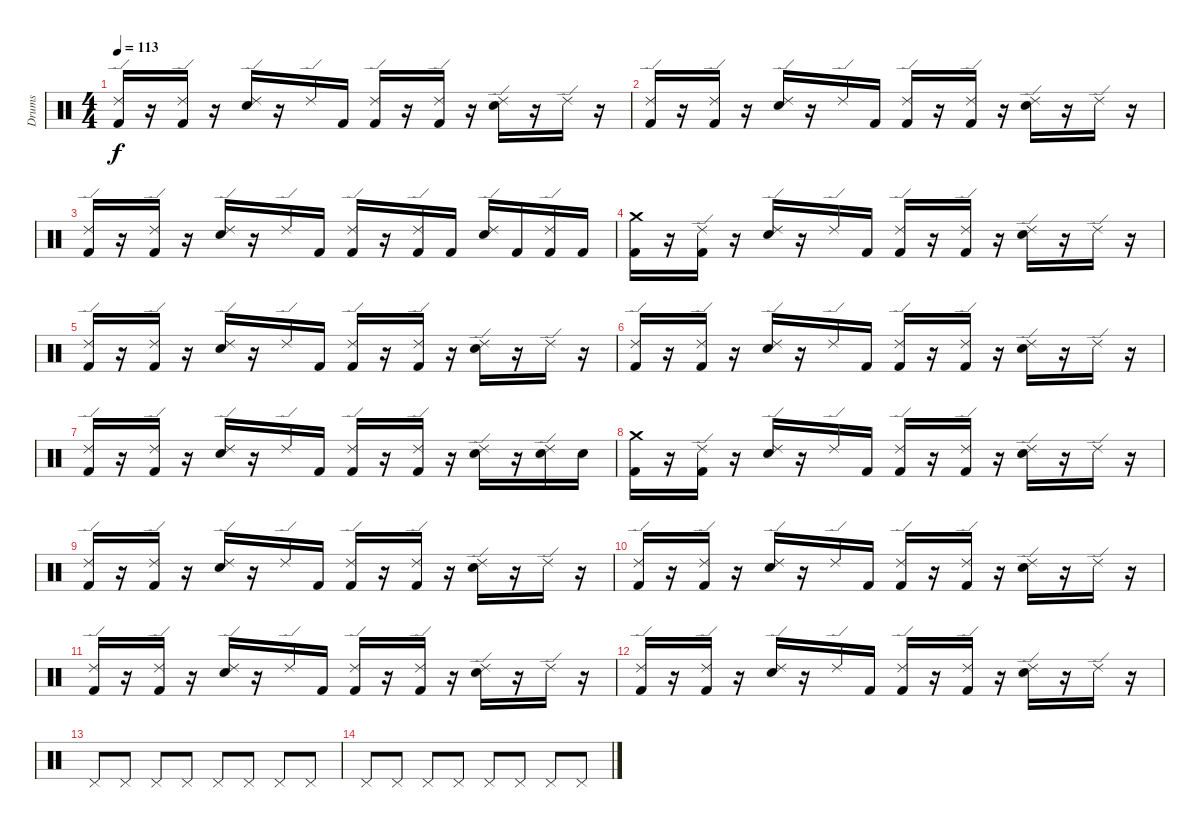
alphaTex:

\track ("Drums" "Drums") {instrument percussion}
\staff {score}
\articulation defaults
\ts (4 4)
\tempo 113
\clef neutral
\ks c
("Ride (edge) 2" "Kick (hit) 2").16{dy f} r.16 ("Ride (edge) 2" "Kick (hit) 2").16 r.16 ("Ride (edge) 2" "Snare (hit) 2").16 r.16 "Ride (edge) 2".16 "Kick (hit) 2".16 ("Ride (edge) 2" "Kick (hit) 2").16 r.16 ("Ride (edge) 2" "Kick (hit) 2").16 r.16 ("Ride (edge) 2" "Snare (hit) 2").16 r.16 "Ride (edge) 2".16 r.16 |
("Ride (edge) 2" "Kick (hit) 2").16 r.16 ("Ride (edge) 2" "Kick (hit) 2").16 r.16 ("Ride (edge) 2" "Snare (hit) 2").16 r.16 "Ride (edge) 2".16 "Kick (hit) 2".16 ("Ride (edge) 2" "Kick (hit) 2").16 r.16 ("Ride (edge) 2" "Kick (hit) 2").16 r.16 ("Ride (edge) 2" "Snare (hit) 2").16 r.16 "Ride (edge) 2".16 r.16 |
("Ride (edge) 2" "Kick (hit) 2").16 r.16 ("Ride (edge) 2" "Kick (hit) 2").16 r.16 ("Ride (edge) 2" "Snare (hit) 2").16 r.16 "Ride (edge) 2".16 "Kick (hit) 2".16 ("Ride (edge) 2" "Kick (hit) 2").16 r.16 ("Ride (edge) 2" "Kick (hit) 2").16 "Kick (hit) 2".16 ("Ride (edge) 2" "Snare (hit) 2").16 "Kick (hit) 2".16 ("Ride (edge) 2" "Kick (hit) 2").16 "Kick (hit) 2".16 |
("Crash medium (hit)" "Kick (hit) 2").16 r.16 ("Ride (edge) 2" "Kick (hit) 2").16 r.16 ("Ride (edge) 2" "Snare (hit) 2").16 r.16 "Ride (edge) 2".16 "Kick (hit) 2".16 ("Ride (edge) 2" "Kick (hit) 2").16 r.16 ("Ride (edge) 2" "Kick (hit) 2").16 r.16 ("Ride (edge) 2" "Snare (hit) 2").16 r.16 "Ride (edge) 2".16 r.16 |
("Ride (edge) 2" "Kick (hit) 2").16 r.16 ("Ride (edge) 2" "Kick (hit) 2").16 r.16 ("Ride (edge) 2" "Snare (hit) 2").16 r.16 "Ride (edge) 2".16 "Kick (hit) 2".16 ("Ride (edge) 2" "Kick (hit) 2").16 r.16 ("Ride (edge) 2" "Kick (hit) 2").16 r.16 ("Ride (edge) 2" "Snare (hit) 2").16 r.16 "Ride (edge) 2".16 r.16 |
("Ride (edge) 2" "Kick (hit) 2").16 r.16 ("Ride (edge) 2" "Kick (hit) 2").16 r.16 ("Ride (edge) 2" "Snare (hit) 2").16 r.16 "Ride (edge) 2".16 "Kick (hit) 2".16 ("Ride (edge) 2" "Kick (hit) 2").16 r.16 ("Ride (edge) 2" "Kick (hit) 2").16 r.16 ("Ride (edge) 2" "Snare (hit) 2").16 r.16 "Ride (edge) 2".16 r.16 |
("Ride (edge) 2" "Kick (hit) 2").16 r.16 ("Ride (edge) 2" "Kick (hit) 2").16 r.16 ("Ride (edge) 2" "Snare (hit) 2").16 r.16 "Ride (edge) 2".16 "Kick (hit) 2".16 ("Ride (edge) 2" "Kick (hit) 2").16 r.16 ("Ride (edge) 2" "Kick (hit) 2").16 r.16 ("Ride (edge) 2" "Snare (hit) 2").16 r.16 ("Ride (edge) 2" "Snare (hit) 2").16 "Snare (hit) 2".16 |
("Crash medium (hit)" "Kick (hit) 2").16 r.16 ("Ride (edge) 2" "Kick (hit) 2").16 r.16 ("Ride (edge) 2" "Snare (hit) 2").16 r.16 "Ride (edge) 2".16 "Kick (hit) 2".16 ("Ride (edge) 2" "Kick (hit) 2").16 r.16 ("Ride (edge) 2" "Kick (hit) 2").16 r.16 ("Ride (edge) 2" "Snare (hit) 2").16 r.16 "Ride (edge) 2".16 r.16 |
("Ride (edge) 2" "Kick (hit) 2").16 r.16 ("Ride (edge) 2" "Kick (hit) 2").16 r.16 ("Ride (edge) 2" "Snare (hit) 2").16 r.16 "Ride (edge) 2".16 "Kick (hit) 2".16 ("Ride (edge) 2" "Kick (hit) 2").16 r.16 ("Ride (edge) 2" "Kick (hit) 2").16 r.16 ("Ride (edge) 2" "Snare (hit) 2").16 r.16 "Ride (edge) 2".16 r.16 |
("Ride (edge) 2" "Kick (hit) 2").16 r.16 ("Ride (edge) 2" "Kick (hit) 2").16 r.16 ("Ride (edge) 2" "Snare (hit) 2").16 r.16 "Ride (edge) 2".16 "Kick (hit) 2".16 ("Ride (edge) 2" "Kick (hit) 2").16 r.16 ("Ride (edge) 2" "Kick (hit) 2").16 r.16 ("Ride (edge) 2" "Snare (hit) 2").16 r.16 "Ride (edge) 2".16 r.16 |
("Ride (edge) 2" "Kick (hit) 2").16 r.16 ("Ride (edge) 2" "Kick (hit) 2").16 r.16 ("Ride (edge) 2" "Snare (hit) 2").16 r.16 "Ride (edge) 2".16 "Kick (hit) 2".16 ("Ride (edge) 2" "Kick (hit) 2").16 r.16 ("Ride (edge) 2" "Kick (hit) 2").16 r.16 ("Ride (edge) 2" "Snare (hit) 2").16 r.16 "Ride (edge) 2".16 r.16 |
("Ride (edge) 2" "Kick (hit) 2").16 r.16 ("Ride (edge) 2" "Kick (hit) 2").16 r.16 ("Ride (edge) 2" "Snare (hit) 2").16 r.16 "Ride (edge) 2".16 "Kick (hit) 2".16 ("Ride (edge) 2" "Kick (hit) 2").16 r.16 ("Ride (edge) 2" "Kick (hit) 2").16 r.16 ("Ride (edge) 2" "Snare (hit) 2").16 r.16 "Ride (edge) 2".16 r.16 |
"Pedal Hi-Hat (hit)".8 "Pedal Hi-Hat (hit)".8 "Pedal Hi-Hat (hit)".8 "Pedal Hi-Hat (hit)".8 "Pedal Hi-Hat (hit)".8 "Pedal Hi-Hat (hit)".8 "Pedal Hi-Hat (hit)".8 "Pedal Hi-Hat (hit)".8 |
"Pedal Hi-Hat (hit)".8 "Pedal Hi-Hat (hit)".8 "Pedal Hi-Hat (hit)".8 "Pedal Hi-Hat (hit)".8 "Pedal Hi-Hat (hit)".8 "Pedal Hi-Hat (hit)".8 "Pedal Hi-Hat (hit)".8 "Pedal Hi-Hat (hit)".8
